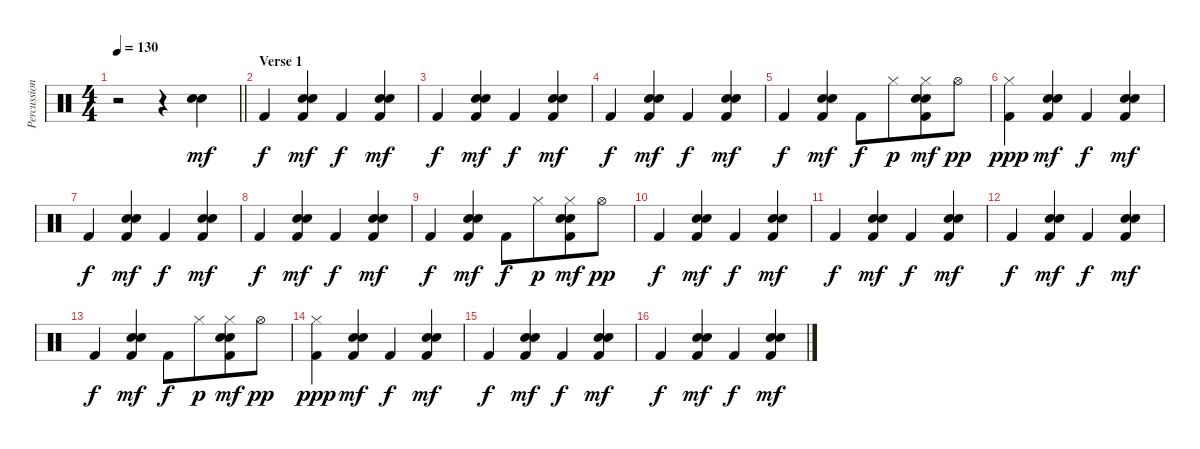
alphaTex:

\track ("Percussion" "Percussion") {instrument percussion}
\staff {score}
\articulation defaults
\ts (4 4)
\tempo 130
\clef neutral
\barLineRight lightlight
\ks aminor
r.2{dy mf} r.4 ("Hand Clap (hit)" "Snare (hit) 2").4 |
\section ("" "Verse 1")
"Kick (hit) 2".4{dy f} ("Hand Clap (hit)" "Snare (hit) 2" "Kick (hit) 2").4{dy mf} "Kick (hit) 2".4{dy f} ("Hand Clap (hit)" "Snare (hit) 2" "Kick (hit) 2").4{dy mf} |
"Kick (hit) 2".4{dy f} ("Hand Clap (hit)" "Snare (hit) 2" "Kick (hit) 2").4{dy mf} "Kick (hit) 2".4{dy f} ("Hand Clap (hit)" "Snare (hit) 2" "Kick (hit) 2").4{dy mf} |
"Kick (hit) 2".4{dy f} ("Hand Clap (hit)" "Snare (hit) 2" "Kick (hit) 2").4{dy mf} "Kick (hit) 2".4{dy f} ("Hand Clap (hit)" "Snare (hit) 2" "Kick (hit) 2").4{dy mf} |
"Kick (hit) 2".4{dy f} ("Hand Clap (hit)" "Snare (hit) 2" "Kick (hit) 2").4{dy mf} "Kick (hit) 2".8{dy f} "Hi-Hat (closed)".8{dy p beam merge} ("Hi-Hat (closed)" "Hand Clap (hit)" "Snare (hit) 2" "Kick (hit) 2").8{dy mf} "Hi-Hat (open)".8{dy pp} |
("Hi-Hat (closed)" "Kick (hit) 2").4{dy ppp} ("Hand Clap (hit)" "Snare (hit) 2" "Kick (hit) 2").4{dy mf} "Kick (hit) 2".4{dy f} ("Hand Clap (hit)" "Snare (hit) 2" "Kick (hit) 2").4{dy mf} |
"Kick (hit) 2".4{dy f} ("Hand Clap (hit)" "Snare (hit) 2" "Kick (hit) 2").4{dy mf} "Kick (hit) 2".4{dy f} ("Hand Clap (hit)" "Snare (hit) 2" "Kick (hit) 2").4{dy mf} |
"Kick (hit) 2".4{dy f} ("Hand Clap (hit)" "Snare (hit) 2" "Kick (hit) 2").4{dy mf} "Kick (hit) 2".4{dy f} ("Hand Clap (hit)" "Snare (hit) 2" "Kick (hit) 2").4{dy mf} |
"Kick (hit) 2".4{dy f} ("Hand Clap (hit)" "Snare (hit) 2" "Kick (hit) 2").4{dy mf} "Kick (hit) 2".8{dy f} "Hi-Hat (closed)".8{dy p beam merge} ("Hi-Hat (closed)" "Hand Clap (hit)" "Snare (hit) 2" "Kick (hit) 2").8{dy mf} "Hi-Hat (open)".8{dy pp} |
"Kick (hit) 2".4{dy f} ("Hand Clap (hit)" "Snare (hit) 2" "Kick (hit) 2").4{dy mf} "Kick (hit) 2".4{dy f} ("Hand Clap (hit)" "Snare (hit) 2" "Kick (hit) 2").4{dy mf} |
"Kick (hit) 2".4{dy f} ("Hand Clap (hit)" "Snare (hit) 2" "Kick (hit) 2").4{dy mf} "Kick (hit) 2".4{dy f} ("Hand Clap (hit)" "Snare (hit) 2" "Kick (hit) 2").4{dy mf} |
"Kick (hit) 2".4{dy f} ("Hand Clap (hit)" "Snare (hit) 2" "Kick (hit) 2").4{dy mf} "Kick (hit) 2".4{dy f} ("Hand Clap (hit)" "Snare (hit) 2" "Kick (hit) 2").4{dy mf} |
"Kick (hit) 2".4{dy f} ("Hand Clap (hit)" "Snare (hit) 2" "Kick (hit) 2").4{dy mf} "Kick (hit) 2".8{dy f} "Hi-Hat (closed)".8{dy p beam merge} ("Hi-Hat (closed)" "Hand Clap (hit)" "Snare (hit) 2" "Kick (hit) 2").8{dy mf} "Hi-Hat (open)".8{dy pp} |
("Hi-Hat (closed)" "Kick (hit) 2").4{dy ppp} ("Hand Clap (hit)" "Snare (hit) 2" "Kick (hit) 2").4{dy mf} "Kick (hit) 2".4{dy f} ("Hand Clap (hit)" "Snare (hit) 2" "Kick (hit) 2").4{dy mf} |
"Kick (hit) 2".4{dy f} ("Hand Clap (hit)" "Snare (hit) 2" "Kick (hit) 2").4{dy mf} "Kick (hit) 2".4{dy f} ("Hand Clap (hit)" "Snare (hit) 2" "Kick (hit) 2").4{dy mf} |
"Kick (hit) 2".4{dy f} ("Hand Clap (hit)" "Snare (hit) 2" "Kick (hit) 2").4{dy mf} "Kick (hit) 2".4{dy f} ("Hand Clap (hit)" "Snare (hit) 2" "Kick (hit) 2").4{dy mf}
